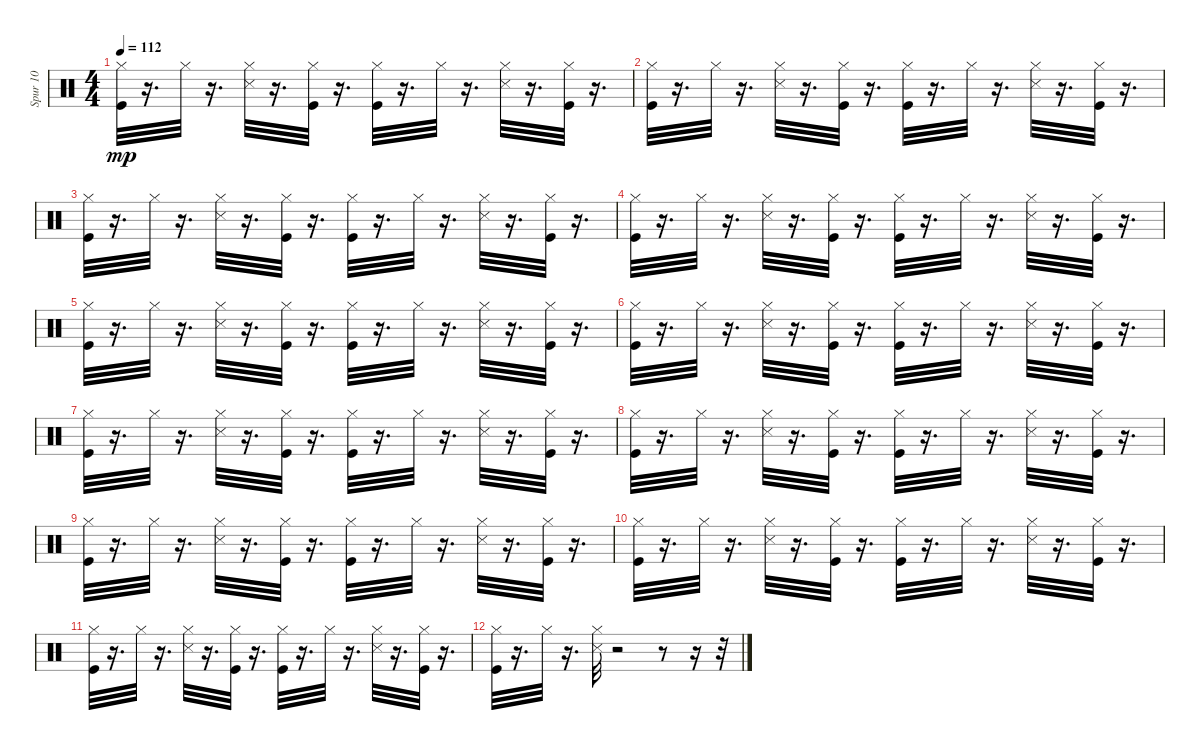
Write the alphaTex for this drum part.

\track ("Spur 10" "Spur 10") {instrument percussion}
\staff {score}
\articulation defaults
\ts (4 4)
\tempo 112
\clef neutral
\ks c
("Kick (hit)" "Hi-Hat (closed)").32{dy mp} r.16{d} "Hi-Hat (closed)".32 r.16{d} ("Snare (side stick) 3" "Hi-Hat (closed)").32 r.16{d} ("Kick (hit)" "Hi-Hat (closed)").32 r.16{d} ("Kick (hit)" "Hi-Hat (closed)").32 r.16{d} "Hi-Hat (closed)".32 r.16{d} ("Snare (side stick) 3" "Hi-Hat (closed)").32 r.16{d} ("Kick (hit)" "Hi-Hat (closed)").32 r.16{d} |
("Kick (hit)" "Hi-Hat (closed)").32 r.16{d} "Hi-Hat (closed)".32 r.16{d} ("Snare (side stick) 3" "Hi-Hat (closed)").32 r.16{d} ("Kick (hit)" "Hi-Hat (closed)").32 r.16{d} ("Kick (hit)" "Hi-Hat (closed)").32 r.16{d} "Hi-Hat (closed)".32 r.16{d} ("Snare (side stick) 3" "Hi-Hat (closed)").32 r.16{d} ("Kick (hit)" "Hi-Hat (closed)").32 r.16{d} |
("Kick (hit)" "Hi-Hat (closed)").32 r.16{d} "Hi-Hat (closed)".32 r.16{d} ("Snare (side stick) 3" "Hi-Hat (closed)").32 r.16{d} ("Kick (hit)" "Hi-Hat (closed)").32 r.16{d} ("Kick (hit)" "Hi-Hat (closed)").32 r.16{d} "Hi-Hat (closed)".32 r.16{d} ("Snare (side stick) 3" "Hi-Hat (closed)").32 r.16{d} ("Kick (hit)" "Hi-Hat (closed)").32 r.16{d} |
("Kick (hit)" "Hi-Hat (closed)").32 r.16{d} "Hi-Hat (closed)".32 r.16{d} ("Snare (side stick) 3" "Hi-Hat (closed)").32 r.16{d} ("Kick (hit)" "Hi-Hat (closed)").32 r.16{d} ("Kick (hit)" "Hi-Hat (closed)").32 r.16{d} "Hi-Hat (closed)".32 r.16{d} ("Snare (side stick) 3" "Hi-Hat (closed)").32 r.16{d} ("Kick (hit)" "Hi-Hat (closed)").32 r.16{d} |
("Kick (hit)" "Hi-Hat (closed)").32 r.16{d} "Hi-Hat (closed)".32 r.16{d} ("Snare (side stick) 3" "Hi-Hat (closed)").32 r.16{d} ("Kick (hit)" "Hi-Hat (closed)").32 r.16{d} ("Kick (hit)" "Hi-Hat (closed)").32 r.16{d} "Hi-Hat (closed)".32 r.16{d} ("Snare (side stick) 3" "Hi-Hat (closed)").32 r.16{d} ("Kick (hit)" "Hi-Hat (closed)").32 r.16{d} |
("Kick (hit)" "Hi-Hat (closed)").32 r.16{d} "Hi-Hat (closed)".32 r.16{d} ("Snare (side stick) 3" "Hi-Hat (closed)").32 r.16{d} ("Kick (hit)" "Hi-Hat (closed)").32 r.16{d} ("Kick (hit)" "Hi-Hat (closed)").32 r.16{d} "Hi-Hat (closed)".32 r.16{d} ("Snare (side stick) 3" "Hi-Hat (closed)").32 r.16{d} ("Kick (hit)" "Hi-Hat (closed)").32 r.16{d} |
("Kick (hit)" "Hi-Hat (closed)").32 r.16{d} "Hi-Hat (closed)".32 r.16{d} ("Snare (side stick) 3" "Hi-Hat (closed)").32 r.16{d} ("Kick (hit)" "Hi-Hat (closed)").32 r.16{d} ("Kick (hit)" "Hi-Hat (closed)").32 r.16{d} "Hi-Hat (closed)".32 r.16{d} ("Snare (side stick) 3" "Hi-Hat (closed)").32 r.16{d} ("Kick (hit)" "Hi-Hat (closed)").32 r.16{d} |
("Kick (hit)" "Hi-Hat (closed)").32 r.16{d} "Hi-Hat (closed)".32 r.16{d} ("Snare (side stick) 3" "Hi-Hat (closed)").32 r.16{d} ("Kick (hit)" "Hi-Hat (closed)").32 r.16{d} ("Kick (hit)" "Hi-Hat (closed)").32 r.16{d} "Hi-Hat (closed)".32 r.16{d} ("Snare (side stick) 3" "Hi-Hat (closed)").32 r.16{d} ("Kick (hit)" "Hi-Hat (closed)").32 r.16{d} |
("Kick (hit)" "Hi-Hat (closed)").32 r.16{d} "Hi-Hat (closed)".32 r.16{d} ("Snare (side stick) 3" "Hi-Hat (closed)").32 r.16{d} ("Kick (hit)" "Hi-Hat (closed)").32 r.16{d} ("Kick (hit)" "Hi-Hat (closed)").32 r.16{d} "Hi-Hat (closed)".32 r.16{d} ("Snare (side stick) 3" "Hi-Hat (closed)").32 r.16{d} ("Kick (hit)" "Hi-Hat (closed)").32 r.16{d} |
("Kick (hit)" "Hi-Hat (closed)").32 r.16{d} "Hi-Hat (closed)".32 r.16{d} ("Snare (side stick) 3" "Hi-Hat (closed)").32 r.16{d} ("Kick (hit)" "Hi-Hat (closed)").32 r.16{d} ("Kick (hit)" "Hi-Hat (closed)").32 r.16{d} "Hi-Hat (closed)".32 r.16{d} ("Snare (side stick) 3" "Hi-Hat (closed)").32 r.16{d} ("Kick (hit)" "Hi-Hat (closed)").32 r.16{d} |
("Kick (hit)" "Hi-Hat (closed)").32 r.16{d} "Hi-Hat (closed)".32 r.16{d} ("Snare (side stick) 3" "Hi-Hat (closed)").32 r.16{d} ("Kick (hit)" "Hi-Hat (closed)").32 r.16{d} ("Kick (hit)" "Hi-Hat (closed)").32 r.16{d} "Hi-Hat (closed)".32 r.16{d} ("Snare (side stick) 3" "Hi-Hat (closed)").32 r.16{d} ("Kick (hit)" "Hi-Hat (closed)").32 r.16{d} |
("Kick (hit)" "Hi-Hat (closed)").32 r.16{d} "Hi-Hat (closed)".32 r.16{d} ("Snare (side stick) 3" "Hi-Hat (closed)").32 r.2 r.8 r.16 r.32
